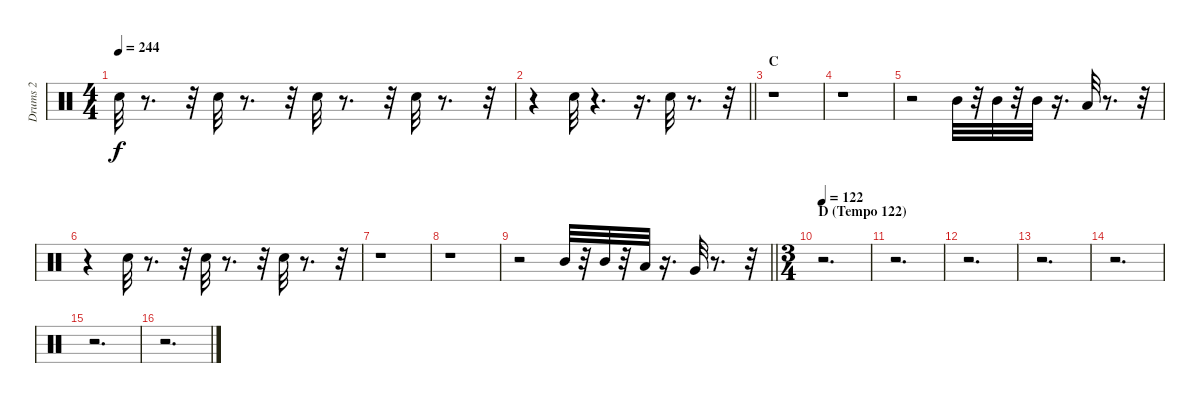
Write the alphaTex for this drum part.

\track ("Drums 2" "Drums 2") {instrument percussion}
\staff {score}
\articulation defaults
\ts (4 4)
\tempo 244
\clef neutral
\ks c "Electric Snare (hit)".32{dy f}
r.8{d} r.32 "Electric Snare (hit)".32 r.8{d} r.32 "Electric Snare (hit)".32 r.8{d} r.32 "Electric Snare (hit)".32 r.8{d} r.32 |
\barLineRight lightlight
r.4 "Electric Snare (hit)".32 r.4{d} r.16{d} "Electric Snare (hit)".32 r.8{d} r.32 |
\section ("" "C")
r.1 |
r.1 |
r.2 "Mid Tom (hit)".32 r.32 "Mid Tom (hit)".32 r.32 "Mid Tom (hit)".32 r.16{d} "Low Tom (hit)".32 r.8{d} r.32 |
r.4 "Electric Snare (hit)".32 r.8{d} r.32 "Electric Snare (hit)".32 r.8{d} r.32 "Electric Snare (hit)".32 r.8{d} r.32 |
r.1 |
r.1 |
\barLineRight lightlight
r.2 "Mid Tom (hit)".32 r.32 "Mid Tom (hit)".32 r.32 "Low Tom (hit)".32 r.16{d} "Very Low Tom (hit)".32 r.8{d} r.32 |
\ts (3 4)
\section ("" "D (Tempo 122)")
\tempo 122
r.2{d} |
r.2{d} |
r.2{d} |
r.2{d} |
r.2{d} |
r.2{d} |
r.2{d}
